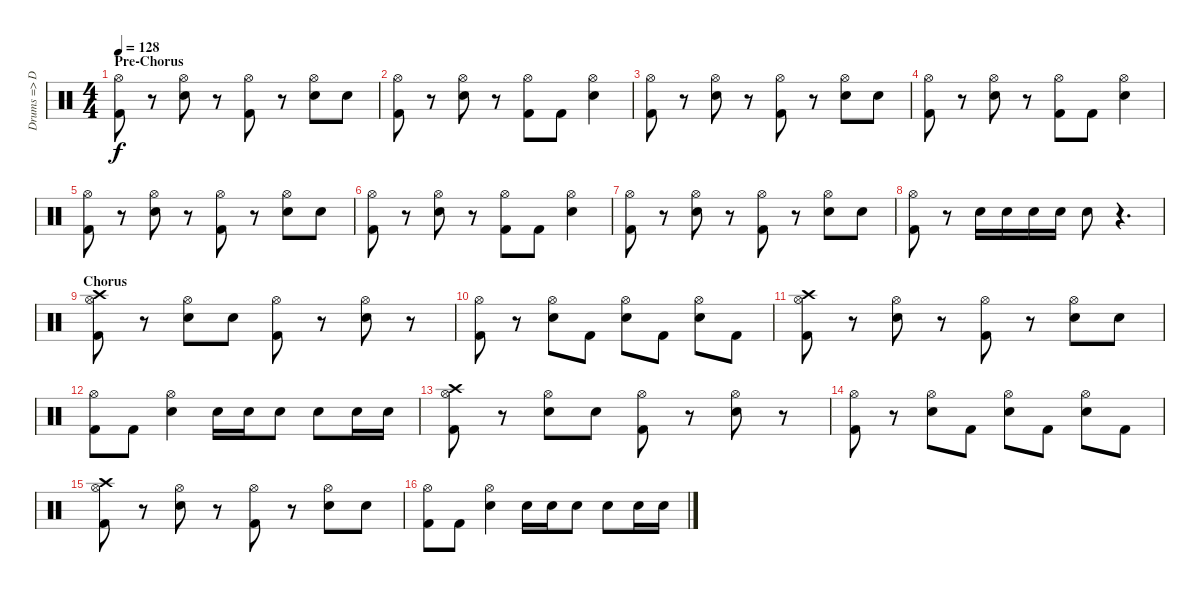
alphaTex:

\track ("Drums => Dave" "Drums => D") {instrument percussion}
\staff {score}
\articulation defaults
\ts (4 4)
\section ("" "Pre-Chorus")
\tempo 128
\clef neutral
\ks c
("Hi-Hat (open)" "Kick (hit) 2").8{dy f} r.8 ("Hi-Hat (open)" "Snare (hit) 2").8 r.8 ("Hi-Hat (open)" "Kick (hit) 2").8 r.8 ("Hi-Hat (open)" "Snare (hit) 2").8 "Snare (hit) 2".8 |
("Hi-Hat (open)" "Kick (hit) 2").8 r.8 ("Hi-Hat (open)" "Snare (hit) 2").8 r.8 ("Hi-Hat (open)" "Kick (hit) 2").8 "Kick (hit) 2".8 ("Hi-Hat (open)" "Snare (hit) 2").4 |
("Hi-Hat (open)" "Kick (hit) 2").8 r.8 ("Hi-Hat (open)" "Snare (hit) 2").8 r.8 ("Hi-Hat (open)" "Kick (hit) 2").8 r.8 ("Hi-Hat (open)" "Snare (hit) 2").8 "Snare (hit) 2".8 |
("Hi-Hat (open)" "Kick (hit) 2").8 r.8 ("Hi-Hat (open)" "Snare (hit) 2").8 r.8 ("Hi-Hat (open)" "Kick (hit) 2").8 "Kick (hit) 2".8 ("Hi-Hat (open)" "Snare (hit) 2").4 |
("Hi-Hat (open)" "Kick (hit) 2").8 r.8 ("Hi-Hat (open)" "Snare (hit) 2").8 r.8 ("Hi-Hat (open)" "Kick (hit) 2").8 r.8 ("Hi-Hat (open)" "Snare (hit) 2").8 "Snare (hit) 2".8 |
("Hi-Hat (open)" "Kick (hit) 2").8 r.8 ("Hi-Hat (open)" "Snare (hit) 2").8 r.8 ("Hi-Hat (open)" "Kick (hit) 2").8 "Kick (hit) 2".8 ("Hi-Hat (open)" "Snare (hit) 2").4 |
("Hi-Hat (open)" "Kick (hit) 2").8 r.8 ("Hi-Hat (open)" "Snare (hit) 2").8 r.8 ("Hi-Hat (open)" "Kick (hit) 2").8 r.8 ("Hi-Hat (open)" "Snare (hit) 2").8 "Snare (hit) 2".8 |
("Hi-Hat (open)" "Kick (hit) 2").8 r.8 "Snare (hit) 2".16 "Snare (hit) 2".16 "Snare (hit) 2".16 "Snare (hit) 2".16 "Snare (hit) 2".8 r.4{d} |
\section ("" "Chorus")
("Hi-Hat (open)" "Crash high (hit)" "Kick (hit) 2").8 r.8 ("Hi-Hat (open)" "Snare (hit) 2").8 "Snare (hit) 2".8 ("Hi-Hat (open)" "Kick (hit) 2").8 r.8 ("Hi-Hat (open)" "Snare (hit) 2").8 r.8 |
("Hi-Hat (open)" "Kick (hit) 2").8 r.8 ("Hi-Hat (open)" "Snare (hit) 2").8 "Kick (hit) 2".8 ("Hi-Hat (open)" "Snare (hit) 2").8 "Kick (hit) 2".8 ("Hi-Hat (open)" "Snare (hit) 2").8 "Kick (hit) 2".8 |
("Hi-Hat (open)" "Crash high (hit)" "Kick (hit) 2").8 r.8 ("Hi-Hat (open)" "Snare (hit) 2").8 r.8 ("Hi-Hat (open)" "Kick (hit) 2").8 r.8 ("Hi-Hat (open)" "Snare (hit) 2").8 "Snare (hit) 2".8 |
("Hi-Hat (open)" "Kick (hit) 2").8 "Kick (hit) 2".8 ("Hi-Hat (open)" "Snare (hit) 2").4 "Snare (hit) 2".16 "Snare (hit) 2".16 "Snare (hit) 2".8 "Snare (hit) 2".8 "Snare (hit) 2".16 "Snare (hit) 2".16 |
("Hi-Hat (open)" "Crash high (hit)" "Kick (hit) 2").8 r.8 ("Hi-Hat (open)" "Snare (hit) 2").8 "Snare (hit) 2".8 ("Hi-Hat (open)" "Kick (hit) 2").8 r.8 ("Hi-Hat (open)" "Snare (hit) 2").8 r.8 |
("Hi-Hat (open)" "Kick (hit) 2").8 r.8 ("Hi-Hat (open)" "Snare (hit) 2").8 "Kick (hit) 2".8 ("Hi-Hat (open)" "Snare (hit) 2").8 "Kick (hit) 2".8 ("Hi-Hat (open)" "Snare (hit) 2").8 "Kick (hit) 2".8 |
("Hi-Hat (open)" "Crash high (hit)" "Kick (hit) 2").8 r.8 ("Hi-Hat (open)" "Snare (hit) 2").8 r.8 ("Hi-Hat (open)" "Kick (hit) 2").8 r.8 ("Hi-Hat (open)" "Snare (hit) 2").8 "Snare (hit) 2".8 |
("Hi-Hat (open)" "Kick (hit) 2").8 "Kick (hit) 2".8 ("Hi-Hat (open)" "Snare (hit) 2").4 "Snare (hit) 2".16 "Snare (hit) 2".16 "Snare (hit) 2".8 "Snare (hit) 2".8 "Snare (hit) 2".16 "Snare (hit) 2".16
